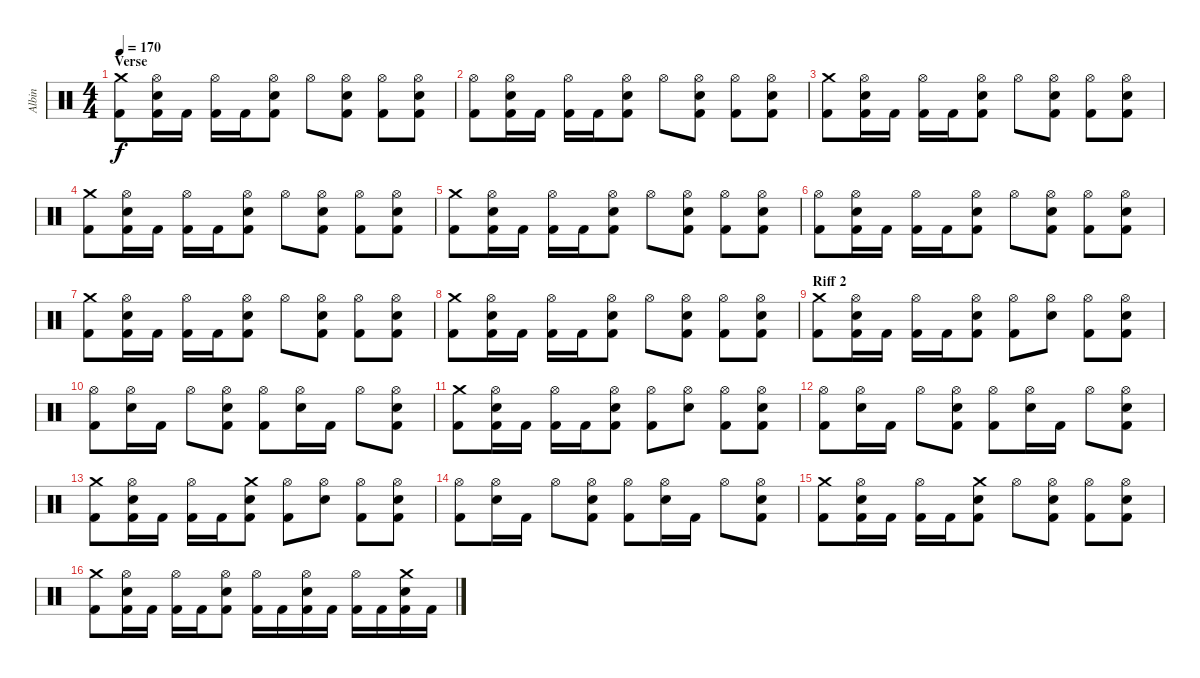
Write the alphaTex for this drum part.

\track ("Albin" "Albin") {instrument percussion}
\staff {score}
\articulation defaults
\ts (4 4)
\section ("" "Verse")
\tempo 170
\clef neutral
\ks c
("Crash medium (hit)" "Kick (hit) 2").8{dy f} ("Hi-Hat (open)" "Electric Snare (hit)" "Kick (hit) 2").16 "Kick (hit) 2".16 ("Hi-Hat (open)" "Kick (hit) 2").16 "Kick (hit) 2".16 ("Hi-Hat (open)" "Electric Snare (hit)" "Kick (hit) 2").8 "Hi-Hat (open)".8 ("Hi-Hat (open)" "Electric Snare (hit)" "Kick (hit) 2").8 ("Hi-Hat (open)" "Kick (hit) 2").8 ("Hi-Hat (open)" "Electric Snare (hit)" "Kick (hit) 2").8 |
("Hi-Hat (open)" "Kick (hit) 2").8 ("Hi-Hat (open)" "Electric Snare (hit)" "Kick (hit) 2").16 "Kick (hit) 2".16 ("Hi-Hat (open)" "Kick (hit) 2").16 "Kick (hit) 2".16 ("Hi-Hat (open)" "Electric Snare (hit)" "Kick (hit) 2").8 "Hi-Hat (open)".8 ("Hi-Hat (open)" "Electric Snare (hit)" "Kick (hit) 2").8 ("Hi-Hat (open)" "Kick (hit) 2").8 ("Hi-Hat (open)" "Electric Snare (hit)" "Kick (hit) 2").8 |
("Crash medium (hit)" "Kick (hit) 2").8 ("Hi-Hat (open)" "Electric Snare (hit)" "Kick (hit) 2").16 "Kick (hit) 2".16 ("Hi-Hat (open)" "Kick (hit) 2").16 "Kick (hit) 2".16 ("Hi-Hat (open)" "Electric Snare (hit)" "Kick (hit) 2").8 "Hi-Hat (open)".8 ("Hi-Hat (open)" "Electric Snare (hit)" "Kick (hit) 2").8 ("Hi-Hat (open)" "Kick (hit) 2").8 ("Hi-Hat (open)" "Electric Snare (hit)" "Kick (hit) 2").8 |
("Crash medium (hit)" "Kick (hit) 2").8 ("Hi-Hat (open)" "Electric Snare (hit)" "Kick (hit) 2").16 "Kick (hit) 2".16 ("Hi-Hat (open)" "Kick (hit) 2").16 "Kick (hit) 2".16 ("Hi-Hat (open)" "Electric Snare (hit)" "Kick (hit) 2").8 "Hi-Hat (open)".8 ("Hi-Hat (open)" "Electric Snare (hit)" "Kick (hit) 2").8 ("Hi-Hat (open)" "Kick (hit) 2").8 ("Hi-Hat (open)" "Electric Snare (hit)" "Kick (hit) 2").8 |
("Crash medium (hit)" "Kick (hit) 2").8 ("Hi-Hat (open)" "Electric Snare (hit)" "Kick (hit) 2").16 "Kick (hit) 2".16 ("Hi-Hat (open)" "Kick (hit) 2").16 "Kick (hit) 2".16 ("Hi-Hat (open)" "Electric Snare (hit)" "Kick (hit) 2").8 "Hi-Hat (open)".8 ("Hi-Hat (open)" "Electric Snare (hit)" "Kick (hit) 2").8 ("Hi-Hat (open)" "Kick (hit) 2").8 ("Hi-Hat (open)" "Electric Snare (hit)" "Kick (hit) 2").8 |
("Hi-Hat (open)" "Kick (hit) 2").8 ("Hi-Hat (open)" "Electric Snare (hit)" "Kick (hit) 2").16 "Kick (hit) 2".16 ("Hi-Hat (open)" "Kick (hit) 2").16 "Kick (hit) 2".16 ("Hi-Hat (open)" "Electric Snare (hit)" "Kick (hit) 2").8 "Hi-Hat (open)".8 ("Hi-Hat (open)" "Electric Snare (hit)" "Kick (hit) 2").8 ("Hi-Hat (open)" "Kick (hit) 2").8 ("Hi-Hat (open)" "Electric Snare (hit)" "Kick (hit) 2").8 |
("Crash medium (hit)" "Kick (hit) 2").8 ("Hi-Hat (open)" "Electric Snare (hit)" "Kick (hit) 2").16 "Kick (hit) 2".16 ("Hi-Hat (open)" "Kick (hit) 2").16 "Kick (hit) 2".16 ("Hi-Hat (open)" "Electric Snare (hit)" "Kick (hit) 2").8 "Hi-Hat (open)".8 ("Hi-Hat (open)" "Electric Snare (hit)" "Kick (hit) 2").8 ("Hi-Hat (open)" "Kick (hit) 2").8 ("Hi-Hat (open)" "Electric Snare (hit)" "Kick (hit) 2").8 |
("Crash medium (hit)" "Kick (hit) 2").8 ("Hi-Hat (open)" "Electric Snare (hit)" "Kick (hit) 2").16 "Kick (hit) 2".16 ("Hi-Hat (open)" "Kick (hit) 2").16 "Kick (hit) 2".16 ("Hi-Hat (open)" "Electric Snare (hit)" "Kick (hit) 2").8 "Hi-Hat (open)".8 ("Hi-Hat (open)" "Electric Snare (hit)" "Kick (hit) 2").8 ("Hi-Hat (open)" "Kick (hit) 2").8 ("Hi-Hat (open)" "Electric Snare (hit)" "Kick (hit) 2").8 |
\section ("" "Riff 2")
("Crash medium (hit)" "Kick (hit) 2").8 ("Hi-Hat (open)" "Electric Snare (hit)" "Kick (hit) 2").16 "Kick (hit) 2".16 ("Hi-Hat (open)" "Kick (hit) 2").16 "Kick (hit) 2".16 ("Hi-Hat (open)" "Electric Snare (hit)" "Kick (hit) 2").8 ("Hi-Hat (open)" "Kick (hit) 2").8 ("Hi-Hat (open)" "Electric Snare (hit)").8 ("Hi-Hat (open)" "Kick (hit) 2").8 ("Hi-Hat (open)" "Electric Snare (hit)" "Kick (hit) 2").8 |
("Hi-Hat (open)" "Kick (hit) 2").8 ("Hi-Hat (open)" "Electric Snare (hit)").16 "Kick (hit) 2".16 "Hi-Hat (open)".8 ("Hi-Hat (open)" "Electric Snare (hit)" "Kick (hit) 2").8 ("Hi-Hat (open)" "Kick (hit) 2").8 ("Hi-Hat (open)" "Electric Snare (hit)").16 "Kick (hit) 2".16 "Hi-Hat (open)".8 ("Hi-Hat (open)" "Electric Snare (hit)" "Kick (hit) 2").8 |
("Crash medium (hit)" "Kick (hit) 2").8 ("Hi-Hat (open)" "Electric Snare (hit)" "Kick (hit) 2").16 "Kick (hit) 2".16 ("Hi-Hat (open)" "Kick (hit) 2").16 "Kick (hit) 2".16 ("Hi-Hat (open)" "Electric Snare (hit)" "Kick (hit) 2").8 ("Hi-Hat (open)" "Kick (hit) 2").8 ("Hi-Hat (open)" "Electric Snare (hit)").8 ("Hi-Hat (open)" "Kick (hit) 2").8 ("Hi-Hat (open)" "Electric Snare (hit)" "Kick (hit) 2").8 |
("Hi-Hat (open)" "Kick (hit) 2").8 ("Hi-Hat (open)" "Electric Snare (hit)").16 "Kick (hit) 2".16 "Hi-Hat (open)".8 ("Hi-Hat (open)" "Electric Snare (hit)" "Kick (hit) 2").8 ("Hi-Hat (open)" "Kick (hit) 2").8 ("Hi-Hat (open)" "Electric Snare (hit)").16 "Kick (hit) 2".16 "Hi-Hat (open)".8 ("Hi-Hat (open)" "Electric Snare (hit)" "Kick (hit) 2").8 |
("Crash medium (hit)" "Kick (hit) 2").8 ("Hi-Hat (open)" "Electric Snare (hit)" "Kick (hit) 2").16 "Kick (hit) 2".16 ("Hi-Hat (open)" "Kick (hit) 2").16 "Kick (hit) 2".16 ("Crash medium (hit)" "Electric Snare (hit)" "Kick (hit) 2").8 ("Hi-Hat (open)" "Kick (hit) 2").8 ("Hi-Hat (open)" "Electric Snare (hit)").8 ("Hi-Hat (open)" "Kick (hit) 2").8 ("Hi-Hat (open)" "Electric Snare (hit)" "Kick (hit) 2").8 |
("Hi-Hat (open)" "Kick (hit) 2").8 ("Hi-Hat (open)" "Electric Snare (hit)").16 "Kick (hit) 2".16 "Hi-Hat (open)".8 ("Hi-Hat (open)" "Electric Snare (hit)" "Kick (hit) 2").8 ("Hi-Hat (open)" "Kick (hit) 2").8 ("Hi-Hat (open)" "Electric Snare (hit)").16 "Kick (hit) 2".16 "Hi-Hat (open)".8 ("Hi-Hat (open)" "Electric Snare (hit)" "Kick (hit) 2").8 |
("Crash medium (hit)" "Kick (hit) 2").8 ("Hi-Hat (open)" "Electric Snare (hit)" "Kick (hit) 2").16 "Kick (hit) 2".16 ("Hi-Hat (open)" "Kick (hit) 2").16 "Kick (hit) 2".16 ("Crash medium (hit)" "Electric Snare (hit)" "Kick (hit) 2").8 "Hi-Hat (open)".8 ("Hi-Hat (open)" "Electric Snare (hit)" "Kick (hit) 2").8 ("Hi-Hat (open)" "Kick (hit) 2").8 ("Hi-Hat (open)" "Electric Snare (hit)" "Kick (hit) 2").8 |
("Crash medium (hit)" "Kick (hit) 2").8 ("Hi-Hat (open)" "Electric Snare (hit)" "Kick (hit) 2").16 "Kick (hit) 2".16 ("Hi-Hat (open)" "Kick (hit) 2").16 "Kick (hit) 2".16 ("Hi-Hat (open)" "Electric Snare (hit)" "Kick (hit) 2").8 ("Hi-Hat (open)" "Kick (hit) 2").16 "Kick (hit) 2".16 ("Hi-Hat (open)" "Electric Snare (hit)" "Kick (hit) 2").16 "Kick (hit) 2".16 ("Hi-Hat (open)" "Kick (hit) 2").16 "Kick (hit) 2".16 ("Crash medium (hit)" "Electric Snare (hit)" "Kick (hit) 2").16 "Kick (hit) 2".16
